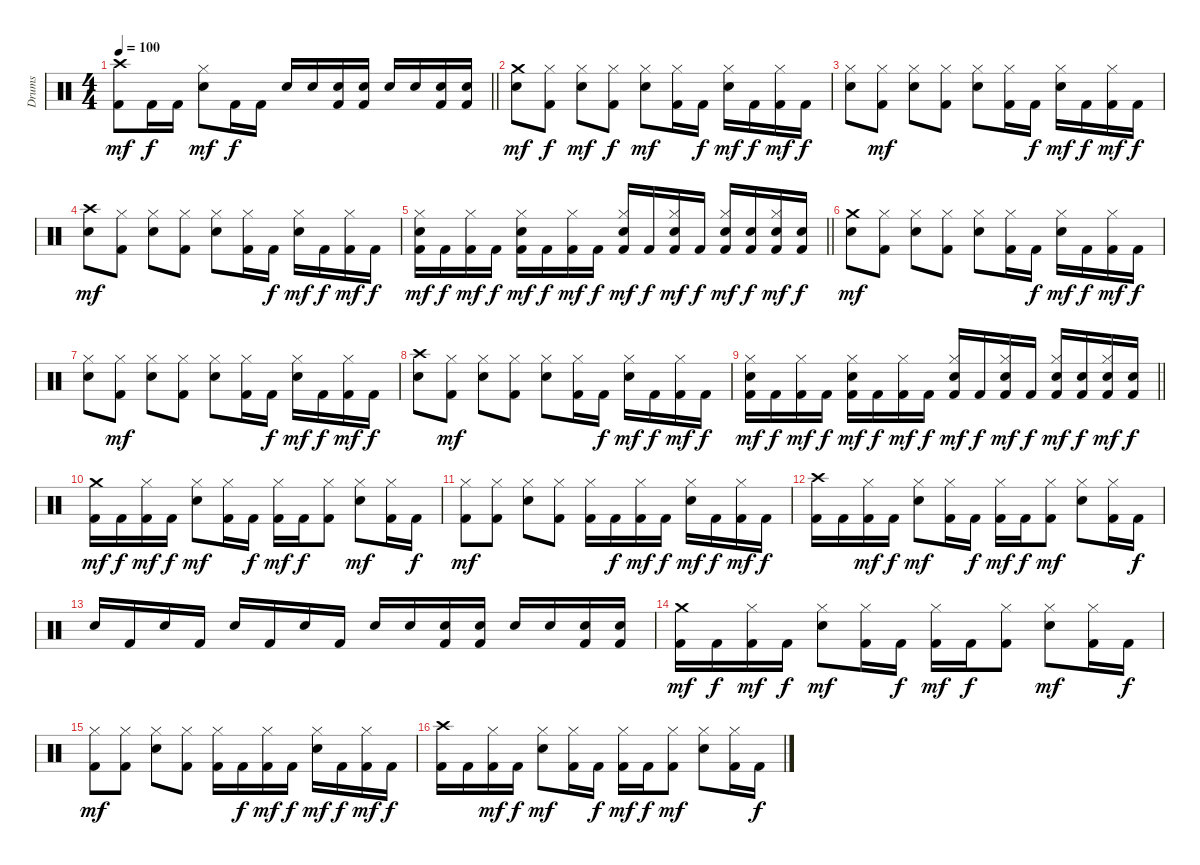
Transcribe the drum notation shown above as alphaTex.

\track ("Drums" "Drums") {instrument percussion}
\staff {score}
\articulation defaults
\ts (4 4)
\tempo 100
\clef neutral
\barLineRight lightlight
\ks c
("Crash high (hit)" "Kick (hit) 2").8{dy mf} "Kick (hit) 2".16{dy f} "Kick (hit) 2".16 ("Hi-Hat (closed)" "Snare (hit) 2").8{dy mf} "Kick (hit) 2".16{dy f} "Kick (hit) 2".16 "Snare (hit) 2".16 "Snare (hit) 2".16 ("Snare (hit) 2" "Kick (hit) 2").16 ("Snare (hit) 2" "Kick (hit) 2").16 "Snare (hit) 2".16 "Snare (hit) 2".16 ("Snare (hit) 2" "Kick (hit) 2").16 ("Snare (hit) 2" "Kick (hit) 2").16 |
("Crash medium (hit)" "Snare (hit) 2").8{dy mf} ("Hi-Hat (closed)" "Kick (hit) 2").8{dy f} ("Hi-Hat (closed)" "Snare (hit) 2").8{dy mf} ("Hi-Hat (closed)" "Kick (hit) 2").8{dy f} ("Hi-Hat (closed)" "Snare (hit) 2").8{dy mf} ("Hi-Hat (closed)" "Kick (hit) 2").16 "Kick (hit) 2".16{dy f} ("Hi-Hat (closed)" "Snare (hit) 2").16{dy mf} "Kick (hit) 2".16{dy f} ("Hi-Hat (closed)" "Kick (hit) 2").16{dy mf} "Kick (hit) 2".16{dy f} |
("Hi-Hat (closed)" "Snare (hit) 2").8 ("Hi-Hat (closed)" "Kick (hit) 2").8{dy mf} ("Hi-Hat (closed)" "Snare (hit) 2").8 ("Hi-Hat (closed)" "Kick (hit) 2").8 ("Hi-Hat (closed)" "Snare (hit) 2").8 ("Hi-Hat (closed)" "Kick (hit) 2").16 "Kick (hit) 2".16{dy f} ("Hi-Hat (closed)" "Snare (hit) 2").16{dy mf} "Kick (hit) 2".16{dy f} ("Hi-Hat (closed)" "Kick (hit) 2").16{dy mf} "Kick (hit) 2".16{dy f} |
("Crash high (hit)" "Snare (hit) 2").8{dy mf} ("Hi-Hat (closed)" "Kick (hit) 2").8 ("Hi-Hat (closed)" "Snare (hit) 2").8 ("Hi-Hat (closed)" "Kick (hit) 2").8 ("Hi-Hat (closed)" "Snare (hit) 2").8 ("Hi-Hat (closed)" "Kick (hit) 2").16 "Kick (hit) 2".16{dy f} ("Hi-Hat (closed)" "Snare (hit) 2").16{dy mf} "Kick (hit) 2".16{dy f} ("Hi-Hat (closed)" "Kick (hit) 2").16{dy mf} "Kick (hit) 2".16{dy f} |
\barLineRight lightlight
("Hi-Hat (closed)" "Snare (hit) 2" "Kick (hit) 2").16{dy mf} "Kick (hit) 2".16{dy f} ("Hi-Hat (closed)" "Kick (hit) 2").16{dy mf} "Kick (hit) 2".16{dy f} ("Hi-Hat (closed)" "Snare (hit) 2" "Kick (hit) 2").16{dy mf} "Kick (hit) 2".16{dy f} ("Hi-Hat (closed)" "Kick (hit) 2").16{dy mf} "Kick (hit) 2".16{dy f} ("Hi-Hat (closed)" "Snare (hit) 2" "Kick (hit) 2").16{dy mf} "Kick (hit) 2".16{dy f} ("Hi-Hat (closed)" "Snare (hit) 2" "Kick (hit) 2").16{dy mf} "Kick (hit) 2".16{dy f} ("Hi-Hat (closed)" "Snare (hit) 2" "Kick (hit) 2").16{dy mf} ("Snare (hit) 2" "Kick (hit) 2").16{dy f} ("Hi-Hat (closed)" "Snare (hit) 2" "Kick (hit) 2").16{dy mf} ("Snare (hit) 2" "Kick (hit) 2").16{dy f} |
("Crash medium (hit)" "Snare (hit) 2").8{dy mf} ("Hi-Hat (closed)" "Kick (hit) 2").8 ("Hi-Hat (closed)" "Snare (hit) 2").8 ("Hi-Hat (closed)" "Kick (hit) 2").8 ("Hi-Hat (closed)" "Snare (hit) 2").8 ("Hi-Hat (closed)" "Kick (hit) 2").16 "Kick (hit) 2".16{dy f} ("Hi-Hat (closed)" "Snare (hit) 2").16{dy mf} "Kick (hit) 2".16{dy f} ("Hi-Hat (closed)" "Kick (hit) 2").16{dy mf} "Kick (hit) 2".16{dy f} |
("Hi-Hat (closed)" "Snare (hit) 2").8 ("Hi-Hat (closed)" "Kick (hit) 2").8{dy mf} ("Hi-Hat (closed)" "Snare (hit) 2").8 ("Hi-Hat (closed)" "Kick (hit) 2").8 ("Hi-Hat (closed)" "Snare (hit) 2").8 ("Hi-Hat (closed)" "Kick (hit) 2").16 "Kick (hit) 2".16{dy f} ("Hi-Hat (closed)" "Snare (hit) 2").16{dy mf} "Kick (hit) 2".16{dy f} ("Hi-Hat (closed)" "Kick (hit) 2").16{dy mf} "Kick (hit) 2".16{dy f} |
("Crash high (hit)" "Snare (hit) 2").8 ("Hi-Hat (closed)" "Kick (hit) 2").8{dy mf} ("Hi-Hat (closed)" "Snare (hit) 2").8 ("Hi-Hat (closed)" "Kick (hit) 2").8 ("Hi-Hat (closed)" "Snare (hit) 2").8 ("Hi-Hat (closed)" "Kick (hit) 2").16 "Kick (hit) 2".16{dy f} ("Hi-Hat (closed)" "Snare (hit) 2").16{dy mf} "Kick (hit) 2".16{dy f} ("Hi-Hat (closed)" "Kick (hit) 2").16{dy mf} "Kick (hit) 2".16{dy f} |
\barLineRight lightlight
("Hi-Hat (closed)" "Snare (hit) 2" "Kick (hit) 2").16{dy mf} "Kick (hit) 2".16{dy f} ("Hi-Hat (closed)" "Kick (hit) 2").16{dy mf} "Kick (hit) 2".16{dy f} ("Hi-Hat (closed)" "Snare (hit) 2" "Kick (hit) 2").16{dy mf} "Kick (hit) 2".16{dy f} ("Hi-Hat (closed)" "Kick (hit) 2").16{dy mf} "Kick (hit) 2".16{dy f} ("Hi-Hat (closed)" "Snare (hit) 2" "Kick (hit) 2").16{dy mf} "Kick (hit) 2".16{dy f} ("Hi-Hat (closed)" "Snare (hit) 2" "Kick (hit) 2").16{dy mf} "Kick (hit) 2".16{dy f} ("Hi-Hat (closed)" "Snare (hit) 2" "Kick (hit) 2").16{dy mf} ("Snare (hit) 2" "Kick (hit) 2").16{dy f} ("Hi-Hat (closed)" "Snare (hit) 2" "Kick (hit) 2").16{dy mf} ("Snare (hit) 2" "Kick (hit) 2").16{dy f} |
("Crash medium (hit)" "Kick (hit) 2").16{dy mf} "Kick (hit) 2".16{dy f} ("Hi-Hat (closed)" "Kick (hit) 2").16{dy mf} "Kick (hit) 2".16{dy f} ("Hi-Hat (closed)" "Snare (hit) 2").8{dy mf} ("Hi-Hat (closed)" "Kick (hit) 2").16 "Kick (hit) 2".16{dy f} ("Hi-Hat (closed)" "Kick (hit) 2").16{dy mf} "Kick (hit) 2".16{dy f} ("Hi-Hat (closed)" "Kick (hit) 2").8 ("Hi-Hat (closed)" "Snare (hit) 2").8{dy mf} ("Hi-Hat (closed)" "Kick (hit) 2").16 "Kick (hit) 2".16{dy f} |
("Hi-Hat (closed)" "Kick (hit) 2").8{dy mf} ("Hi-Hat (closed)" "Kick (hit) 2").8 ("Hi-Hat (closed)" "Snare (hit) 2").8 ("Hi-Hat (closed)" "Kick (hit) 2").8 ("Hi-Hat (closed)" "Kick (hit) 2").16 "Kick (hit) 2".16{dy f} ("Hi-Hat (closed)" "Kick (hit) 2").16{dy mf} "Kick (hit) 2".16{dy f} ("Hi-Hat (closed)" "Snare (hit) 2").16{dy mf} "Kick (hit) 2".16{dy f} ("Hi-Hat (closed)" "Kick (hit) 2").16{dy mf} "Kick (hit) 2".16{dy f} |
("Crash high (hit)" "Kick (hit) 2").16 "Kick (hit) 2".16 ("Hi-Hat (closed)" "Kick (hit) 2").16{dy mf} "Kick (hit) 2".16{dy f} ("Hi-Hat (closed)" "Snare (hit) 2").8{dy mf} ("Hi-Hat (closed)" "Kick (hit) 2").16 "Kick (hit) 2".16{dy f} ("Hi-Hat (closed)" "Kick (hit) 2").16{dy mf} "Kick (hit) 2".16{dy f} ("Hi-Hat (closed)" "Kick (hit) 2").8{dy mf} ("Hi-Hat (closed)" "Snare (hit) 2").8 ("Hi-Hat (closed)" "Kick (hit) 2").16 "Kick (hit) 2".16{dy f} |
"Snare (hit) 2".16 "Kick (hit) 2".16 "Snare (hit) 2".16 "Kick (hit) 2".16 "Snare (hit) 2".16 "Kick (hit) 2".16 "Snare (hit) 2".16 "Kick (hit) 2".16 "Snare (hit) 2".16 "Snare (hit) 2".16 ("Snare (hit) 2" "Kick (hit) 2").16 ("Snare (hit) 2" "Kick (hit) 2").16 "Snare (hit) 2".16 "Snare (hit) 2".16 ("Snare (hit) 2" "Kick (hit) 2").16 ("Snare (hit) 2" "Kick (hit) 2").16 |
("Crash medium (hit)" "Kick (hit) 2").16{dy mf} "Kick (hit) 2".16{dy f} ("Hi-Hat (closed)" "Kick (hit) 2").16{dy mf} "Kick (hit) 2".16{dy f} ("Hi-Hat (closed)" "Snare (hit) 2").8{dy mf} ("Hi-Hat (closed)" "Kick (hit) 2").16 "Kick (hit) 2".16{dy f} ("Hi-Hat (closed)" "Kick (hit) 2").16{dy mf} "Kick (hit) 2".16{dy f} ("Hi-Hat (closed)" "Kick (hit) 2").8 ("Hi-Hat (closed)" "Snare (hit) 2").8{dy mf} ("Hi-Hat (closed)" "Kick (hit) 2").16 "Kick (hit) 2".16{dy f} |
("Hi-Hat (closed)" "Kick (hit) 2").8{dy mf} ("Hi-Hat (closed)" "Kick (hit) 2").8 ("Hi-Hat (closed)" "Snare (hit) 2").8 ("Hi-Hat (closed)" "Kick (hit) 2").8 ("Hi-Hat (closed)" "Kick (hit) 2").16 "Kick (hit) 2".16{dy f} ("Hi-Hat (closed)" "Kick (hit) 2").16{dy mf} "Kick (hit) 2".16{dy f} ("Hi-Hat (closed)" "Snare (hit) 2").16{dy mf} "Kick (hit) 2".16{dy f} ("Hi-Hat (closed)" "Kick (hit) 2").16{dy mf} "Kick (hit) 2".16{dy f} |
("Crash high (hit)" "Kick (hit) 2").16 "Kick (hit) 2".16 ("Hi-Hat (closed)" "Kick (hit) 2").16{dy mf} "Kick (hit) 2".16{dy f} ("Hi-Hat (closed)" "Snare (hit) 2").8{dy mf} ("Hi-Hat (closed)" "Kick (hit) 2").16 "Kick (hit) 2".16{dy f} ("Hi-Hat (closed)" "Kick (hit) 2").16{dy mf} "Kick (hit) 2".16{dy f} ("Hi-Hat (closed)" "Kick (hit) 2").8{dy mf} ("Hi-Hat (closed)" "Snare (hit) 2").8 ("Hi-Hat (closed)" "Kick (hit) 2").16 "Kick (hit) 2".16{dy f}
